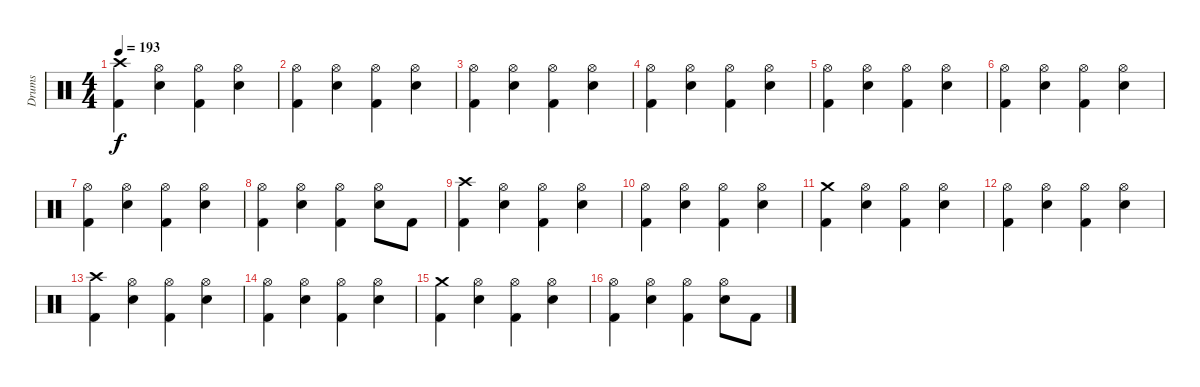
\track ("Drums" "Drums") {instrument percussion}
\staff {score}
\articulation defaults
\ts (4 4)
\tempo 193
\clef neutral
\ks c
("Crash high (hit)" "Kick (hit) 2").4{dy f} ("Hi-Hat (open)" "Electric Snare (hit)").4 ("Hi-Hat (open)" "Kick (hit) 2").4 ("Hi-Hat (open)" "Electric Snare (hit)").4 |
("Hi-Hat (open)" "Kick (hit) 2").4 ("Hi-Hat (open)" "Electric Snare (hit)").4 ("Hi-Hat (open)" "Kick (hit) 2").4 ("Hi-Hat (open)" "Electric Snare (hit)").4 |
("Hi-Hat (open)" "Kick (hit) 2").4 ("Hi-Hat (open)" "Electric Snare (hit)").4 ("Hi-Hat (open)" "Kick (hit) 2").4 ("Hi-Hat (open)" "Electric Snare (hit)").4 |
("Hi-Hat (open)" "Kick (hit) 2").4 ("Hi-Hat (open)" "Electric Snare (hit)").4 ("Hi-Hat (open)" "Kick (hit) 2").4 ("Hi-Hat (open)" "Electric Snare (hit)").4 |
("Hi-Hat (open)" "Kick (hit) 2").4 ("Hi-Hat (open)" "Electric Snare (hit)").4 ("Hi-Hat (open)" "Kick (hit) 2").4 ("Hi-Hat (open)" "Electric Snare (hit)").4 |
("Hi-Hat (open)" "Kick (hit) 2").4 ("Hi-Hat (open)" "Electric Snare (hit)").4 ("Hi-Hat (open)" "Kick (hit) 2").4 ("Hi-Hat (open)" "Electric Snare (hit)").4 |
("Hi-Hat (open)" "Kick (hit) 2").4 ("Hi-Hat (open)" "Electric Snare (hit)").4 ("Hi-Hat (open)" "Kick (hit) 2").4 ("Hi-Hat (open)" "Electric Snare (hit)").4 |
("Hi-Hat (open)" "Kick (hit) 2").4 ("Hi-Hat (open)" "Electric Snare (hit)").4 ("Hi-Hat (open)" "Kick (hit) 2").4 ("Hi-Hat (open)" "Electric Snare (hit)").8 "Kick (hit) 2".8 |
("Crash high (hit)" "Kick (hit) 2").4 ("Hi-Hat (open)" "Electric Snare (hit)").4 ("Hi-Hat (open)" "Kick (hit) 2").4 ("Hi-Hat (open)" "Electric Snare (hit)").4 |
("Hi-Hat (open)" "Kick (hit) 2").4 ("Hi-Hat (open)" "Electric Snare (hit)").4 ("Hi-Hat (open)" "Kick (hit) 2").4 ("Hi-Hat (open)" "Electric Snare (hit)").4 |
("Crash medium (hit)" "Kick (hit) 2").4 ("Hi-Hat (open)" "Electric Snare (hit)").4 ("Hi-Hat (open)" "Kick (hit) 2").4 ("Hi-Hat (open)" "Electric Snare (hit)").4 |
("Hi-Hat (open)" "Kick (hit) 2").4 ("Hi-Hat (open)" "Electric Snare (hit)").4 ("Hi-Hat (open)" "Kick (hit) 2").4 ("Hi-Hat (open)" "Electric Snare (hit)").4 |
("Crash high (hit)" "Kick (hit) 2").4 ("Hi-Hat (open)" "Electric Snare (hit)").4 ("Hi-Hat (open)" "Kick (hit) 2").4 ("Hi-Hat (open)" "Electric Snare (hit)").4 |
("Hi-Hat (open)" "Kick (hit) 2").4 ("Hi-Hat (open)" "Electric Snare (hit)").4 ("Hi-Hat (open)" "Kick (hit) 2").4 ("Hi-Hat (open)" "Electric Snare (hit)").4 |
("Crash medium (hit)" "Kick (hit) 2").4 ("Hi-Hat (open)" "Electric Snare (hit)").4 ("Hi-Hat (open)" "Kick (hit) 2").4 ("Hi-Hat (open)" "Electric Snare (hit)").4 |
("Hi-Hat (open)" "Kick (hit) 2").4 ("Hi-Hat (open)" "Electric Snare (hit)").4 ("Hi-Hat (open)" "Kick (hit) 2").4 ("Hi-Hat (open)" "Electric Snare (hit)").8 "Kick (hit) 2".8
